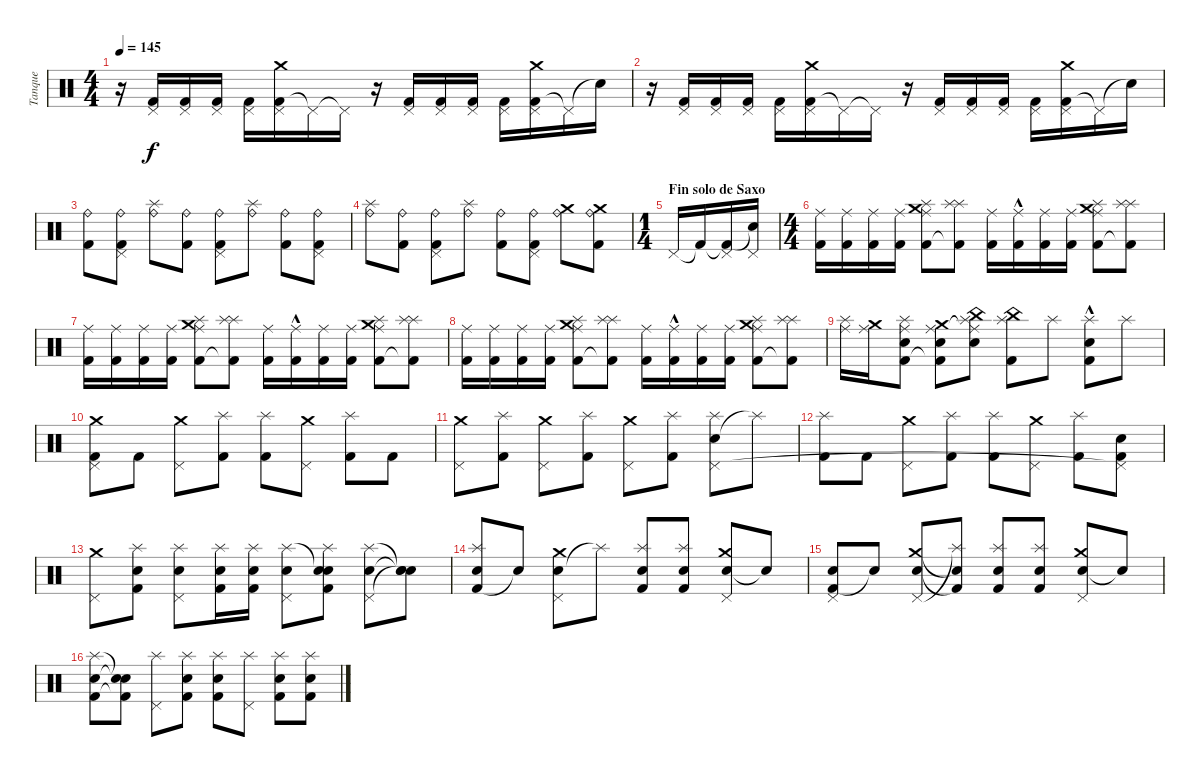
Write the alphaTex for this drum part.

\track ("Tanque" "Tanque") {instrument percussion}
\staff {score}
\articulation defaults
\ts (4 4)
\tempo 145
\clef neutral
\ks c
r.16{dy f} ("Kick (hit) 2" "Pedal Hi-Hat (hit)").16 ("Kick (hit) 2" "Pedal Hi-Hat (hit)").16 ("Kick (hit) 2" "Pedal Hi-Hat (hit)").16 ("Kick (hit) 2" "Pedal Hi-Hat (hit)").16 ("Kick (hit) 2" "Pedal Hi-Hat (hit)" "Crash medium (hit)").16 "Pedal Hi-Hat (hit)"{t}.16 "Pedal Hi-Hat (hit)"{t}.16 r.16 ("Kick (hit) 2" "Pedal Hi-Hat (hit)").16 ("Kick (hit) 2" "Pedal Hi-Hat (hit)").16 ("Kick (hit) 2" "Pedal Hi-Hat (hit)").16 ("Kick (hit) 2" "Pedal Hi-Hat (hit)").16 ("Kick (hit) 2" "Pedal Hi-Hat (hit)" "Crash medium (hit)").16 "Pedal Hi-Hat (hit)"{t}.16 "Snare (hit)"{t}.16 |
r.16 ("Kick (hit) 2" "Pedal Hi-Hat (hit)").16 ("Kick (hit) 2" "Pedal Hi-Hat (hit)").16 ("Kick (hit) 2" "Pedal Hi-Hat (hit)").16 ("Kick (hit) 2" "Pedal Hi-Hat (hit)").16 ("Kick (hit) 2" "Pedal Hi-Hat (hit)" "Crash medium (hit)").16 "Pedal Hi-Hat (hit)"{t}.16 "Pedal Hi-Hat (hit)"{t}.16 r.16 ("Kick (hit) 2" "Pedal Hi-Hat (hit)").16 ("Kick (hit) 2" "Pedal Hi-Hat (hit)").16 ("Kick (hit) 2" "Pedal Hi-Hat (hit)").16 ("Kick (hit) 2" "Pedal Hi-Hat (hit)").16 ("Kick (hit) 2" "Pedal Hi-Hat (hit)" "Crash medium (hit)").16 "Pedal Hi-Hat (hit)"{t}.16 "Snare (hit)"{t}.16 |
("Kick (hit) 2" "Ride (bell)").8 ("Kick (hit) 2" "Ride (bell)" "Pedal Hi-Hat (hit)").8 ("Ride (bell)" "Splash (hit)").8 ("Kick (hit) 2" "Ride (bell)").8 ("Kick (hit) 2" "Ride (bell)" "Pedal Hi-Hat (hit)").8 ("Ride (bell)" "Splash (hit)").8 ("Kick (hit) 2" "Ride (bell)").8 ("Kick (hit) 2" "Ride (bell)" "Pedal Hi-Hat (hit)").8 |
("Ride (bell)" "Splash (hit)").8 ("Kick (hit) 2" "Ride (bell)").8 ("Kick (hit) 2" "Ride (bell)" "Pedal Hi-Hat (hit)").8 ("Ride (bell)" "Splash (hit)").8 ("Kick (hit) 2" "Ride (bell)").8 ("Kick (hit) 2" "Ride (bell)" "Pedal Hi-Hat (hit)").8 ("Ride (bell)" "Crash medium (hit)").8 ("Kick (hit) 2" "Ride (bell)" "Crash medium (hit)").8 |
\ts (1 4)
\section ("" "Fin solo de Saxo")
"Pedal Hi-Hat (hit)".16 "Kick (hit) 2"{t}.16 ("Kick (hit) 2"{t} "Pedal Hi-Hat (hit)").16 ("Snare (hit)"{t} "Pedal Hi-Hat (hit)").16 |
\ts (4 4)
("Kick (hit) 2" "Ride (middle)").16 ("Kick (hit) 2" "Ride (middle)").16 ("Kick (hit) 2" "Ride (middle)").16 ("Kick (hit) 2" "Ride (middle)").16 ("Kick (hit) 2" "Splash (hit)" "Crash medium (hit)" "Ride (middle)").8 ("Kick (hit) 2"{t} "Splash (hit)" "Splash (hit)").8 ("Kick (hit) 2" "Ride (middle)").16 ("Kick (hit) 2"{hac} "Ride (middle)").16 ("Kick (hit) 2" "Ride (middle)").16 ("Kick (hit) 2" "Ride (middle)").16 ("Kick (hit) 2" "Splash (hit)" "Crash medium (hit)" "Ride (middle)").8 ("Kick (hit) 2"{t} "Splash (hit)" "Splash (hit)").8 |
("Kick (hit) 2" "Ride (middle)").16 ("Kick (hit) 2" "Ride (middle)").16 ("Kick (hit) 2" "Ride (middle)").16 ("Kick (hit) 2" "Ride (middle)").16 ("Kick (hit) 2" "Splash (hit)" "Crash medium (hit)" "Ride (middle)").8 ("Kick (hit) 2"{t} "Splash (hit)" "Splash (hit)").8 ("Kick (hit) 2" "Ride (middle)").16 ("Kick (hit) 2"{hac} "Ride (middle)").16 ("Kick (hit) 2" "Ride (middle)").16 ("Kick (hit) 2" "Ride (middle)").16 ("Kick (hit) 2" "Splash (hit)" "Crash medium (hit)" "Ride (middle)").8 ("Kick (hit) 2"{t} "Splash (hit)" "Splash (hit)").8 |
("Kick (hit) 2" "Ride (middle)").16 ("Kick (hit) 2" "Ride (middle)").16 ("Kick (hit) 2" "Ride (middle)").16 ("Kick (hit) 2" "Ride (middle)").16 ("Kick (hit) 2" "Splash (hit)" "Crash medium (hit)" "Ride (middle)").8 ("Kick (hit) 2"{t} "Splash (hit)" "Splash (hit)").8 ("Kick (hit) 2" "Ride (middle)").16 ("Kick (hit) 2"{hac} "Ride (middle)").16 ("Kick (hit) 2" "Ride (middle)").16 ("Kick (hit) 2" "Ride (middle)").16 ("Kick (hit) 2" "Splash (hit)" "Crash medium (hit)" "Ride (middle)").8 ("Kick (hit) 2"{t} "Splash (hit)" "Splash (hit)").8 |
("Splash (hit)" "Ride (middle)").16 ("Crash medium (hit)" "Ride (middle)").16 ("Kick (hit) 2" "Splash (hit)" "Snare (hit) 2" "Ride (middle)").8 ("Kick (hit) 2"{t} "Snare (hit) 2" "Crash medium (hit)" "Ride (middle)").8 ("Snare (hit) 2" "Splash (hit)" "China (hit)" "Ride (middle)"{t}).8 ("Kick (hit) 2" "Splash (hit)" "China (hit)").8 "Splash (hit)".8 ("Kick (hit) 2"{hac} "Splash (hit)" "Snare (hit) 2").8 "Splash (hit)".8 |
("Kick (hit) 2" "Crash medium (hit)" "Pedal Hi-Hat (hit)").8 "Kick (hit) 2".8 ("Crash medium (hit)" "Pedal Hi-Hat (hit)").8 ("Kick (hit) 2" "Splash (hit)").8 ("Kick (hit) 2" "Splash (hit)").8 ("Crash medium (hit)" "Pedal Hi-Hat (hit)").8 ("Kick (hit) 2" "Splash (hit)").8 "Kick (hit) 2".8 |
("Crash medium (hit)" "Pedal Hi-Hat (hit)").8 ("Kick (hit) 2" "Splash (hit)").8 ("Crash medium (hit)" "Pedal Hi-Hat (hit)").8 ("Kick (hit) 2" "Splash (hit)").8 ("Crash medium (hit)" "Pedal Hi-Hat (hit)").8 ("Kick (hit) 2" "Splash (hit)").8 ("Snare (hit) 2" "Splash (hit)" "Pedal Hi-Hat (hit)").8 "Splash (hit)"{t}.8 |
("Kick (hit) 2" "Splash (hit)").8 "Kick (hit) 2".8 ("Crash medium (hit)" "Pedal Hi-Hat (hit)").8 ("Kick (hit) 2" "Splash (hit)").8 ("Kick (hit) 2" "Splash (hit)").8 ("Crash medium (hit)" "Pedal Hi-Hat (hit)").8 ("Kick (hit) 2" "Splash (hit)").8 ("Kick (hit) 2" "Snare (hit) 2" "Pedal Hi-Hat (hit)"{t}).8 |
("Crash medium (hit)" "Pedal Hi-Hat (hit)").8 ("Kick (hit) 2" "Electric Snare (hit)" "Splash (hit)").8 ("Snare (hit) 2" "Splash (hit)" "Pedal Hi-Hat (hit)").8 ("Kick (hit) 2" "Electric Snare (hit)" "Splash (hit)").16 ("Kick (hit) 2" "Electric Snare (hit)" "Splash (hit)").16 ("Snare (hit) 2" "Splash (hit)" "Pedal Hi-Hat (hit)").8 ("Kick (hit) 2" "Snare (hit)"{t} "Electric Snare (hit)" "Splash (hit)").8 ("Snare (hit) 2" "Splash (hit)" "Pedal Hi-Hat (hit)").8 ("Snare (hit)"{t} "Snare (hit)"{t} "Snare (hit)"{t}).8 |
("Kick (hit) 2" "Electric Snare (hit)" "Splash (hit)").8 "Snare (hit)"{t}.8 ("Snare (hit) 2" "Crash medium (hit)" "Pedal Hi-Hat (hit)").8 "Splash (hit)"{t}.8 ("Kick (hit) 2" "Electric Snare (hit)" "Splash (hit)").8 ("Kick (hit) 2" "Electric Snare (hit)" "Splash (hit)").8 ("Snare (hit) 2" "Crash medium (hit)" "Pedal Hi-Hat (hit)").8 "Snare (hit)"{t}.8 |
("Kick (hit) 2" "Electric Snare (hit)" "Pedal Hi-Hat (hit)").8 "Snare (hit)"{t}.8 ("Snare (hit) 2" "Crash medium (hit)" "Pedal Hi-Hat (hit)").8 ("Kick (hit) 2"{t} "Electric Snare (hit)"{t} "Splash (hit)"{t}).8 ("Kick (hit) 2" "Electric Snare (hit)" "Splash (hit)").8 ("Kick (hit) 2" "Electric Snare (hit)" "Splash (hit)").8 ("Snare (hit) 2" "Crash medium (hit)" "Pedal Hi-Hat (hit)").8 "Snare (hit)"{t}.8 |
("Kick (hit) 2" "Snare (hit) 2" "Splash (hit)").8 ("Kick (hit) 2"{t} "Snare (hit)"{t} "Snare (hit)"{t}).8 ("Pedal Hi-Hat (hit)" "Splash (hit)").8 ("Kick (hit) 2" "Snare (hit) 2" "Splash (hit)").8 ("Kick (hit) 2" "Snare (hit) 2" "Splash (hit)").8 ("Pedal Hi-Hat (hit)" "Splash (hit)").8 ("Kick (hit) 2" "Snare (hit) 2" "Splash (hit)").8 ("Kick (hit) 2" "Snare (hit) 2" "Splash (hit)").8
